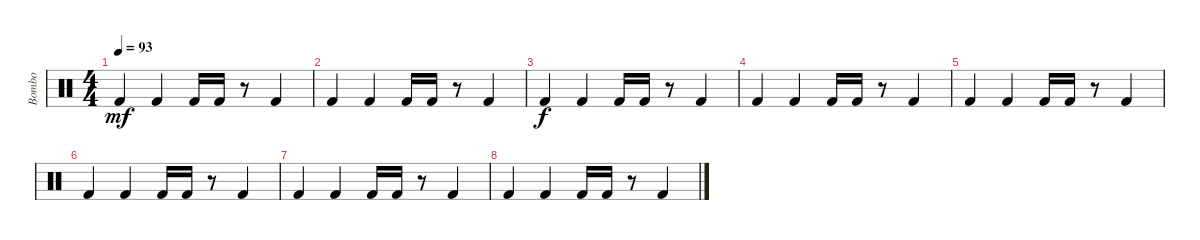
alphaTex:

\track ("Bombo" "Bombo") {instrument percussion bank 1}
\staff {score}
\articulation defaults
\ts (4 4)
\tempo 93
\clef neutral
\ks c "Kick (hit) 2".4{dy mf} "Kick (hit) 2".4 "Kick (hit) 2".16 "Kick (hit) 2".16
r.8 "Kick (hit) 2".4 |
"Kick (hit) 2".4 "Kick (hit) 2".4 "Kick (hit) 2".16 "Kick (hit) 2".16 r.8 "Kick (hit) 2".4 |
"Kick (hit) 2".4{dy f} "Kick (hit) 2".4 "Kick (hit) 2".16 "Kick (hit) 2".16 r.8 "Kick (hit) 2".4 |
"Kick (hit) 2".4 "Kick (hit) 2".4 "Kick (hit) 2".16 "Kick (hit) 2".16 r.8 "Kick (hit) 2".4 |
"Kick (hit) 2".4 "Kick (hit) 2".4 "Kick (hit) 2".16 "Kick (hit) 2".16 r.8 "Kick (hit) 2".4 |
"Kick (hit) 2".4 "Kick (hit) 2".4 "Kick (hit) 2".16 "Kick (hit) 2".16 r.8 "Kick (hit) 2".4 |
"Kick (hit) 2".4 "Kick (hit) 2".4 "Kick (hit) 2".16 "Kick (hit) 2".16 r.8 "Kick (hit) 2".4 |
"Kick (hit) 2".4 "Kick (hit) 2".4 "Kick (hit) 2".16 "Kick (hit) 2".16 r.8 "Kick (hit) 2".4
